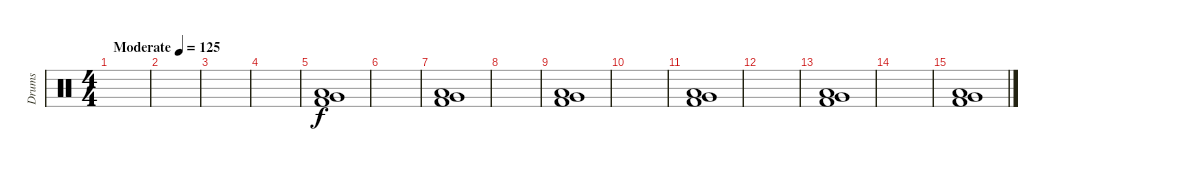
\track ("Drums" "Drums") {instrument percussion}
\staff {score}
\articulation defaults
\ts (4 4)
\tempo (125 "Moderate")
\clef neutral
\ks c
|
|
|
|
("Very Low Tom (hit)" "Low Floor Tom (hit)" "Kick (hit) 2").1{volume 1} |
|
("Very Low Tom (hit)" "Low Floor Tom (hit)" "Kick (hit) 2").1 |
|
("Very Low Tom (hit)" "Low Floor Tom (hit)" "Kick (hit) 2").1 |
|
("Very Low Tom (hit)" "Low Floor Tom (hit)" "Kick (hit) 2").1 |
|
("Very Low Tom (hit)" "Low Floor Tom (hit)" "Kick (hit) 2").1{volume 5} |
|
("Very Low Tom (hit)" "Low Floor Tom (hit)" "Kick (hit) 2").1{volume 5}
